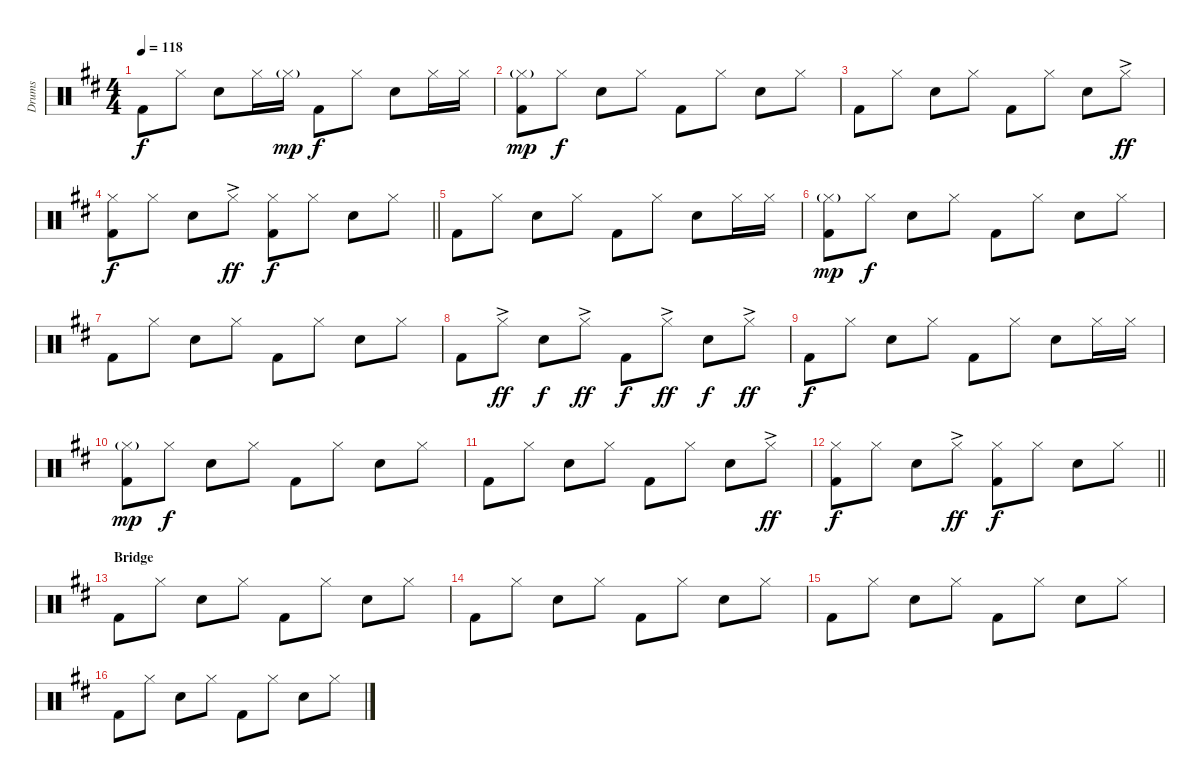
\track ("Drums" "Drums") {instrument percussion}
\staff {score}
\articulation defaults
\ts (4 4)
\tempo 118
\clef neutral
\ks bminor "Kick (hit) 2".8{dy f} "Hi-Hat (closed)".8 "Snare (hit) 2".8 "Hi-Hat (closed)".16 "Hi-Hat (closed)"{g}.16{dy mp} "Kick (hit) 2".8{dy f} "Hi-Hat (closed)".8 "Snare (hit) 2".8 "Hi-Hat (closed)".16 "Hi-Hat (closed)".16
|
("Hi-Hat (closed)"{g} "Kick (hit) 2").8{dy mp} "Hi-Hat (closed)".8{dy f} "Snare (hit) 2".8 "Hi-Hat (closed)".8 "Kick (hit) 2".8 "Hi-Hat (closed)".8 "Snare (hit) 2".8 "Hi-Hat (closed)".8 |
"Kick (hit) 2".8 "Hi-Hat (closed)".8 "Snare (hit) 2".8 "Hi-Hat (closed)".8 "Kick (hit) 2".8 "Hi-Hat (closed)".8 "Snare (hit) 2".8 "Hi-Hat (closed)"{ac}.8{dy ff} |
\barLineRight lightlight
("Hi-Hat (closed)" "Kick (hit) 2").8{dy f} "Hi-Hat (closed)".8 "Snare (hit) 2".8 "Hi-Hat (closed)"{ac}.8{dy ff} ("Hi-Hat (closed)" "Kick (hit) 2").8{dy f} "Hi-Hat (closed)".8 "Snare (hit) 2".8 "Hi-Hat (closed)".8 |
"Kick (hit) 2".8 "Hi-Hat (closed)".8 "Snare (hit) 2".8 "Hi-Hat (closed)".8 "Kick (hit) 2".8 "Hi-Hat (closed)".8 "Snare (hit) 2".8 "Hi-Hat (closed)".16 "Hi-Hat (closed)".16 |
("Hi-Hat (closed)"{g} "Kick (hit) 2").8{dy mp} "Hi-Hat (closed)".8{dy f} "Snare (hit) 2".8 "Hi-Hat (closed)".8 "Kick (hit) 2".8 "Hi-Hat (closed)".8 "Snare (hit) 2".8 "Hi-Hat (closed)".8 |
"Kick (hit) 2".8 "Hi-Hat (closed)".8 "Snare (hit) 2".8 "Hi-Hat (closed)".8 "Kick (hit) 2".8 "Hi-Hat (closed)".8 "Snare (hit) 2".8 "Hi-Hat (closed)".8 |
"Kick (hit) 2".8 "Hi-Hat (closed)"{ac}.8{dy ff} "Snare (hit) 2".8{dy f} "Hi-Hat (closed)"{ac}.8{dy ff} "Kick (hit) 2".8{dy f} "Hi-Hat (closed)"{ac}.8{dy ff} "Snare (hit) 2".8{dy f} "Hi-Hat (closed)"{ac}.8{dy ff} |
"Kick (hit) 2".8{dy f} "Hi-Hat (closed)".8 "Snare (hit) 2".8 "Hi-Hat (closed)".8 "Kick (hit) 2".8 "Hi-Hat (closed)".8 "Snare (hit) 2".8 "Hi-Hat (closed)".16 "Hi-Hat (closed)".16 |
("Hi-Hat (closed)"{g} "Kick (hit) 2").8{dy mp} "Hi-Hat (closed)".8{dy f} "Snare (hit) 2".8 "Hi-Hat (closed)".8 "Kick (hit) 2".8 "Hi-Hat (closed)".8 "Snare (hit) 2".8 "Hi-Hat (closed)".8 |
"Kick (hit) 2".8 "Hi-Hat (closed)".8 "Snare (hit) 2".8 "Hi-Hat (closed)".8 "Kick (hit) 2".8 "Hi-Hat (closed)".8 "Snare (hit) 2".8 "Hi-Hat (closed)"{ac}.8{dy ff} |
\barLineRight lightlight
("Hi-Hat (closed)" "Kick (hit) 2").8{dy f} "Hi-Hat (closed)".8 "Snare (hit) 2".8 "Hi-Hat (closed)"{ac}.8{dy ff} ("Hi-Hat (closed)" "Kick (hit) 2").8{dy f} "Hi-Hat (closed)".8 "Snare (hit) 2".8 "Hi-Hat (closed)".8 |
\section ("" "Bridge")
"Kick (hit) 2".8 "Hi-Hat (closed)".8 "Snare (hit) 2".8 "Hi-Hat (closed)".8 "Kick (hit) 2".8 "Hi-Hat (closed)".8 "Snare (hit) 2".8 "Hi-Hat (closed)".8 |
"Kick (hit) 2".8 "Hi-Hat (closed)".8 "Snare (hit) 2".8 "Hi-Hat (closed)".8 "Kick (hit) 2".8 "Hi-Hat (closed)".8 "Snare (hit) 2".8 "Hi-Hat (closed)".8 |
"Kick (hit) 2".8 "Hi-Hat (closed)".8 "Snare (hit) 2".8 "Hi-Hat (closed)".8 "Kick (hit) 2".8 "Hi-Hat (closed)".8 "Snare (hit) 2".8 "Hi-Hat (closed)".8 |
"Kick (hit) 2".8 "Hi-Hat (closed)".8 "Snare (hit) 2".8 "Hi-Hat (closed)".8 "Kick (hit) 2".8 "Hi-Hat (closed)".8 "Snare (hit) 2".8 "Hi-Hat (closed)".8
